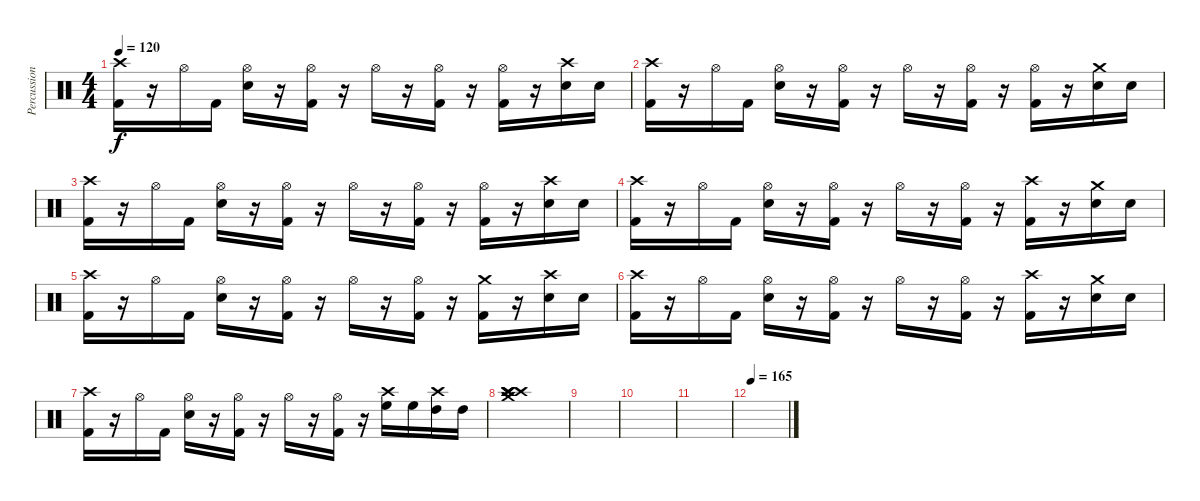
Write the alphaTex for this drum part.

\track ("Percussion" "Percussion") {instrument percussion}
\staff {score}
\articulation defaults
\ts (4 4)
\tempo 120
\clef neutral
\ks c
("Crash high (hit)" "Kick (hit) 2").16{dy f} r.16 "Hi-Hat (open)".16 "Kick (hit) 2".16 ("Hi-Hat (open)" "Snare (hit) 2").16 r.16 ("Hi-Hat (open)" "Kick (hit) 2").16 r.16 "Hi-Hat (open)".16 r.16 ("Hi-Hat (open)" "Kick (hit) 2").16 r.16 ("Hi-Hat (open)" "Kick (hit) 2").16 r.16 ("Crash high (hit)" "Snare (hit) 2").16 "Snare (hit) 2".16 |
("Crash high (hit)" "Kick (hit) 2").16 r.16 "Hi-Hat (open)".16 "Kick (hit) 2".16 ("Hi-Hat (open)" "Snare (hit) 2").16 r.16 ("Hi-Hat (open)" "Kick (hit) 2").16 r.16 "Hi-Hat (open)".16 r.16 ("Hi-Hat (open)" "Kick (hit) 2").16 r.16 ("Hi-Hat (open)" "Kick (hit) 2").16 r.16 ("Crash medium (hit)" "Snare (hit) 2").16 "Snare (hit) 2".16 |
("Crash high (hit)" "Kick (hit) 2").16 r.16 "Hi-Hat (open)".16 "Kick (hit) 2".16 ("Hi-Hat (open)" "Snare (hit) 2").16 r.16 ("Hi-Hat (open)" "Kick (hit) 2").16 r.16 "Hi-Hat (open)".16 r.16 ("Hi-Hat (open)" "Kick (hit) 2").16 r.16 ("Hi-Hat (open)" "Kick (hit) 2").16 r.16 ("Crash high (hit)" "Snare (hit) 2").16 "Snare (hit) 2".16 |
("Crash high (hit)" "Kick (hit) 2").16 r.16 "Hi-Hat (open)".16 "Kick (hit) 2".16 ("Hi-Hat (open)" "Snare (hit) 2").16 r.16 ("Hi-Hat (open)" "Kick (hit) 2").16 r.16 "Hi-Hat (open)".16 r.16 ("Hi-Hat (open)" "Kick (hit) 2").16 r.16 ("Crash high (hit)" "Kick (hit) 2").16 r.16 ("Crash medium (hit)" "Snare (hit) 2").16 "Snare (hit) 2".16 |
("Crash high (hit)" "Kick (hit) 2").16 r.16 "Hi-Hat (open)".16 "Kick (hit) 2".16 ("Hi-Hat (open)" "Snare (hit) 2").16 r.16 ("Hi-Hat (open)" "Kick (hit) 2").16 r.16 "Hi-Hat (open)".16 r.16 ("Hi-Hat (open)" "Kick (hit) 2").16 r.16 ("Crash medium (hit)" "Kick (hit) 2").16 r.16 ("Crash high (hit)" "Snare (hit) 2").16 "Snare (hit) 2".16 |
("Crash high (hit)" "Kick (hit) 2").16 r.16 "Hi-Hat (open)".16 "Kick (hit) 2".16 ("Hi-Hat (open)" "Snare (hit) 2").16 r.16 ("Hi-Hat (open)" "Kick (hit) 2").16 r.16 "Hi-Hat (open)".16 r.16 ("Hi-Hat (open)" "Kick (hit) 2").16 r.16 ("Crash high (hit)" "Kick (hit) 2").16 r.16 ("Crash medium (hit)" "Snare (hit) 2").16 "Snare (hit) 2".16 |
("Crash high (hit)" "Kick (hit) 2").16 r.16 "Hi-Hat (open)".16 "Kick (hit) 2".16 ("Hi-Hat (open)" "Snare (hit) 2").16 r.16 ("Hi-Hat (open)" "Kick (hit) 2").16 r.16 "Hi-Hat (open)".16 r.16 ("Hi-Hat (open)" "Kick (hit) 2").16 r.16 ("Crash high (hit)" "High Floor Tom (hit)").16 "High Floor Tom (hit)".16 ("Crash high (hit)" "High Tom (hit)").16 "High Tom (hit)".16 |
("Crash high (hit)" "Crash medium (hit)" "Crash high (hit)" "Crash high (hit)" "Crash high (hit)").1 |
|
|
|
\tempo 165
